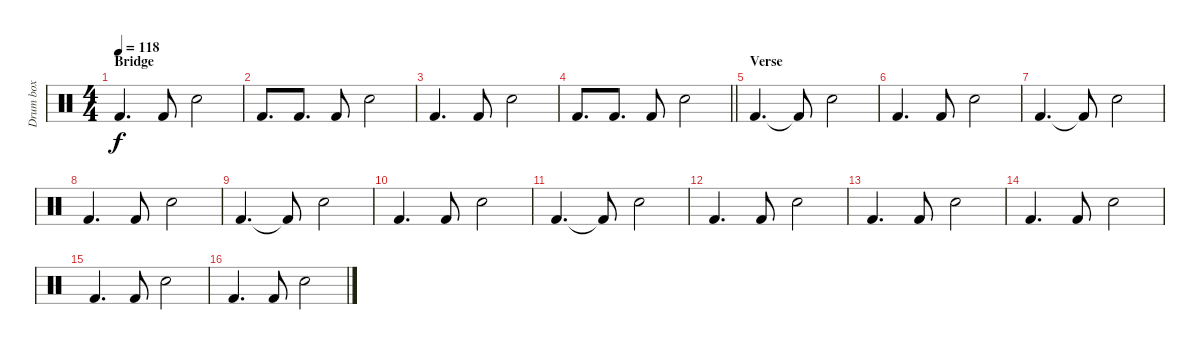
\track ("Drum box" "Drum box") {instrument percussion}
\staff {score}
\articulation defaults
\ts (4 4)
\section ("" "Bridge")
\tempo 118
\clef neutral
\ks c "Kick (hit) 2".4{d dy f} "Kick (hit) 2".8 "Snare (hit) 2".2
|
"Kick (hit) 2".8{d} "Kick (hit) 2".8{d} "Kick (hit) 2".8 "Snare (hit) 2".2 |
"Kick (hit) 2".4{d} "Kick (hit) 2".8 "Snare (hit) 2".2 |
\barLineRight lightlight "Kick (hit) 2".8{d} "Kick (hit) 2".8{d} "Kick (hit) 2".8 "Snare (hit) 2".2
|
\section ("" "Verse")
"Kick (hit) 2".4{d} "Kick (hit) 2"{t}.8 "Snare (hit) 2".2 |
"Kick (hit) 2".4{d} "Kick (hit) 2".8 "Snare (hit) 2".2 |
"Kick (hit) 2".4{d} "Kick (hit) 2"{t}.8 "Snare (hit) 2".2 |
"Kick (hit) 2".4{d} "Kick (hit) 2".8 "Snare (hit) 2".2 |
"Kick (hit) 2".4{d} "Kick (hit) 2"{t}.8 "Snare (hit) 2".2 |
"Kick (hit) 2".4{d} "Kick (hit) 2".8 "Snare (hit) 2".2 |
"Kick (hit) 2".4{d} "Kick (hit) 2"{t}.8 "Snare (hit) 2".2 |
"Kick (hit) 2".4{d} "Kick (hit) 2".8 "Snare (hit) 2".2 |
"Kick (hit) 2".4{d} "Kick (hit) 2".8 "Snare (hit) 2".2 |
"Kick (hit) 2".4{d} "Kick (hit) 2".8 "Snare (hit) 2".2 |
"Kick (hit) 2".4{d} "Kick (hit) 2".8 "Snare (hit) 2".2 |
"Kick (hit) 2".4{d} "Kick (hit) 2".8 "Snare (hit) 2".2
